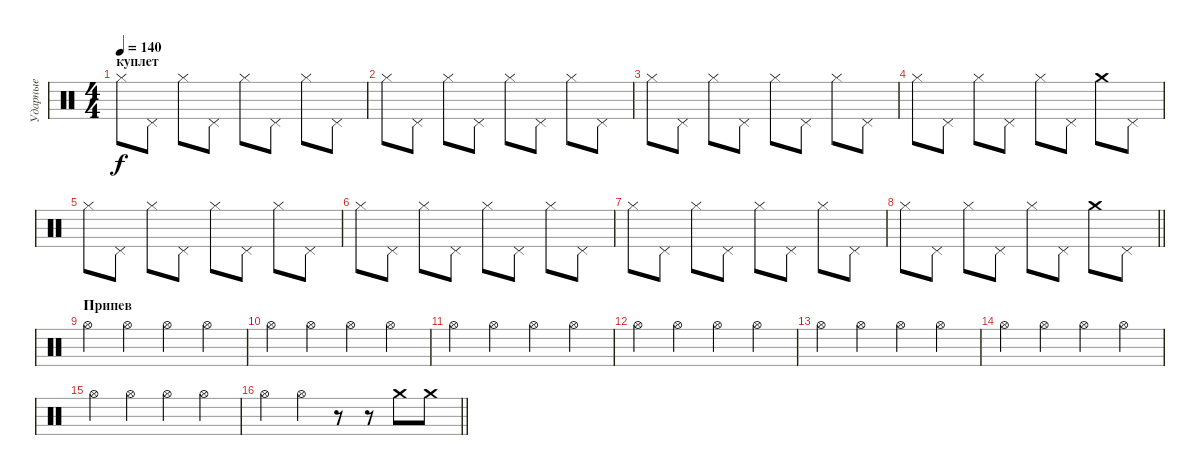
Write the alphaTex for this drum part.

\track ("Ударные" "Ударные") {instrument percussion}
\staff {score}
\articulation defaults
\ts (4 4)
\section ("" "куплет")
\tempo 140
\clef neutral
\ks c "Hi-Hat (closed)".8{dy f} "Pedal Hi-Hat (hit)".8 "Hi-Hat (closed)".8 "Pedal Hi-Hat (hit)".8 "Hi-Hat (closed)".8 "Pedal Hi-Hat (hit)".8 "Hi-Hat (closed)".8 "Pedal Hi-Hat (hit)".8
|
"Hi-Hat (closed)".8 "Pedal Hi-Hat (hit)".8 "Hi-Hat (closed)".8 "Pedal Hi-Hat (hit)".8 "Hi-Hat (closed)".8 "Pedal Hi-Hat (hit)".8 "Hi-Hat (closed)".8 "Pedal Hi-Hat (hit)".8 |
"Hi-Hat (closed)".8 "Pedal Hi-Hat (hit)".8 "Hi-Hat (closed)".8 "Pedal Hi-Hat (hit)".8 "Hi-Hat (closed)".8 "Pedal Hi-Hat (hit)".8 "Hi-Hat (closed)".8 "Pedal Hi-Hat (hit)".8 |
"Hi-Hat (closed)".8 "Pedal Hi-Hat (hit)".8 "Hi-Hat (closed)".8 "Pedal Hi-Hat (hit)".8 "Hi-Hat (closed)".8 "Pedal Hi-Hat (hit)".8 "Crash medium (hit)".8 "Pedal Hi-Hat (hit)".8 |
"Hi-Hat (closed)".8 "Pedal Hi-Hat (hit)".8 "Hi-Hat (closed)".8 "Pedal Hi-Hat (hit)".8 "Hi-Hat (closed)".8 "Pedal Hi-Hat (hit)".8 "Hi-Hat (closed)".8 "Pedal Hi-Hat (hit)".8 |
"Hi-Hat (closed)".8 "Pedal Hi-Hat (hit)".8 "Hi-Hat (closed)".8 "Pedal Hi-Hat (hit)".8 "Hi-Hat (closed)".8 "Pedal Hi-Hat (hit)".8 "Hi-Hat (closed)".8 "Pedal Hi-Hat (hit)".8 |
"Hi-Hat (closed)".8 "Pedal Hi-Hat (hit)".8 "Hi-Hat (closed)".8 "Pedal Hi-Hat (hit)".8 "Hi-Hat (closed)".8 "Pedal Hi-Hat (hit)".8 "Hi-Hat (closed)".8 "Pedal Hi-Hat (hit)".8 |
\barLineRight lightlight "Hi-Hat (closed)".8 "Pedal Hi-Hat (hit)".8 "Hi-Hat (closed)".8 "Pedal Hi-Hat (hit)".8 "Hi-Hat (closed)".8 "Pedal Hi-Hat (hit)".8 "Crash medium (hit)".8 "Pedal Hi-Hat (hit)".8
|
\section ("" "Припев")
"Hi-Hat (open)".4 "Hi-Hat (open)".4 "Hi-Hat (open)".4 "Hi-Hat (open)".4 |
"Hi-Hat (open)".4 "Hi-Hat (open)".4 "Hi-Hat (open)".4 "Hi-Hat (open)".4 |
"Hi-Hat (open)".4 "Hi-Hat (open)".4 "Hi-Hat (open)".4 "Hi-Hat (open)".4 |
"Hi-Hat (open)".4 "Hi-Hat (open)".4 "Hi-Hat (open)".4 "Hi-Hat (open)".4 |
"Hi-Hat (open)".4 "Hi-Hat (open)".4 "Hi-Hat (open)".4 "Hi-Hat (open)".4 |
"Hi-Hat (open)".4 "Hi-Hat (open)".4 "Hi-Hat (open)".4 "Hi-Hat (open)".4 |
"Hi-Hat (open)".4 "Hi-Hat (open)".4 "Hi-Hat (open)".4 "Hi-Hat (open)".4 |
\barLineRight lightlight "Hi-Hat (open)".4 "Hi-Hat (open)".4
r.8 r.8 "Crash medium (hit)".8 "Crash medium (hit)".8
